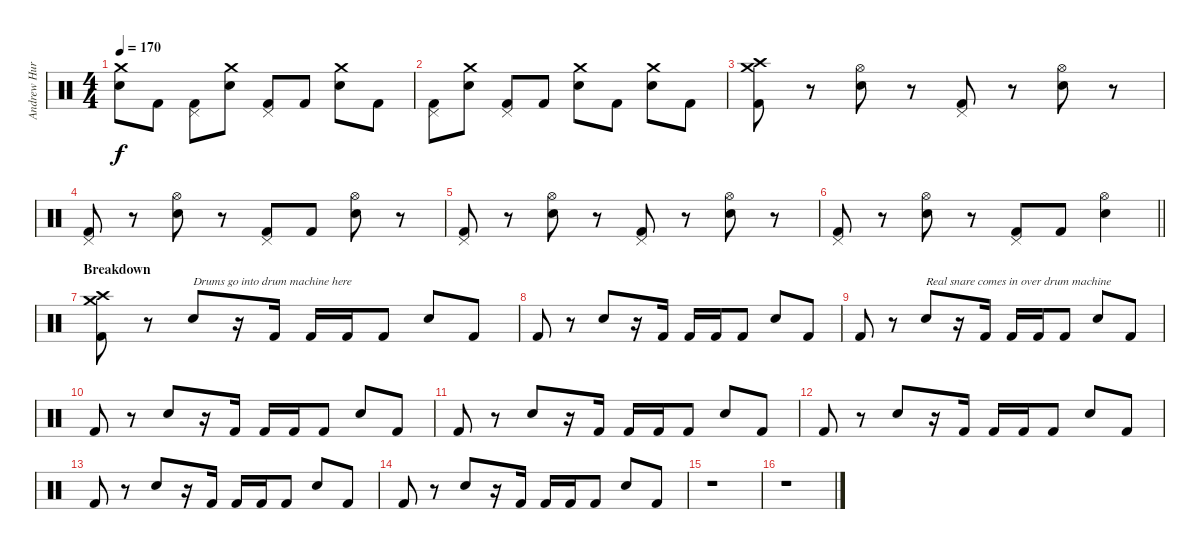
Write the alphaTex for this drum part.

\track ("Andrew Hurley (Drums)" "Andrew Hur") {instrument percussion}
\staff {score}
\articulation defaults
\ts (4 4)
\tempo 170
\clef neutral
\ks c
("Crash medium (hit)" "Electric Snare (hit)").8{dy f} "Kick (hit) 2".8 ("Pedal Hi-Hat (hit)" "Kick (hit) 2").8 ("Crash medium (hit)" "Electric Snare (hit)").8 ("Pedal Hi-Hat (hit)" "Kick (hit) 2").8 "Kick (hit) 2".8 ("Crash medium (hit)" "Electric Snare (hit)").8 "Kick (hit) 2".8 |
("Pedal Hi-Hat (hit)" "Kick (hit) 2").8 ("Crash medium (hit)" "Electric Snare (hit)").8 ("Pedal Hi-Hat (hit)" "Kick (hit) 2").8 "Kick (hit) 2".8 ("Crash medium (hit)" "Electric Snare (hit)").8 "Kick (hit) 2".8 ("Crash medium (hit)" "Electric Snare (hit)").8 "Kick (hit) 2".8 |
("Crash high (hit)" "Crash medium (hit)" "Kick (hit) 2").8 r.8 ("Hi-Hat (open)" "Electric Snare (hit)").8 r.8 ("Pedal Hi-Hat (hit)" "Kick (hit) 2").8 r.8 ("Hi-Hat (open)" "Electric Snare (hit)").8 r.8 |
("Pedal Hi-Hat (hit)" "Kick (hit) 2").8 r.8 ("Hi-Hat (open)" "Electric Snare (hit)").8 r.8 ("Pedal Hi-Hat (hit)" "Kick (hit) 2").8 "Kick (hit) 2".8 ("Hi-Hat (open)" "Electric Snare (hit)").8 r.8 |
("Pedal Hi-Hat (hit)" "Kick (hit) 2").8 r.8 ("Hi-Hat (open)" "Electric Snare (hit)").8 r.8 ("Pedal Hi-Hat (hit)" "Kick (hit) 2").8 r.8 ("Hi-Hat (open)" "Electric Snare (hit)").8 r.8 |
\barLineRight lightlight
("Pedal Hi-Hat (hit)" "Kick (hit) 2").8 r.8 ("Hi-Hat (open)" "Electric Snare (hit)").8 r.8 ("Pedal Hi-Hat (hit)" "Kick (hit) 2").8 "Kick (hit) 2".8 ("Hi-Hat (open)" "Electric Snare (hit)").4 |
\section ("" "Breakdown")
("Crash high (hit)" "Crash medium (hit)" "Kick (hit) 2").8 r.8 "Electric Snare (hit)".8{txt "Drums go into drum machine here"} r.16 "Kick (hit) 2".16 "Kick (hit) 2".16 "Kick (hit) 2".16 "Kick (hit) 2".8 "Electric Snare (hit)".8 "Kick (hit) 2".8 |
"Kick (hit) 2".8 r.8 "Electric Snare (hit)".8 r.16 "Kick (hit) 2".16 "Kick (hit) 2".16 "Kick (hit) 2".16 "Kick (hit) 2".8 "Electric Snare (hit)".8 "Kick (hit) 2".8 |
"Kick (hit) 2".8 r.8 "Electric Snare (hit)".8{txt "Real snare comes in over drum machine"} r.16 "Kick (hit) 2".16 "Kick (hit) 2".16 "Kick (hit) 2".16 "Kick (hit) 2".8 "Electric Snare (hit)".8 "Kick (hit) 2".8 |
"Kick (hit) 2".8 r.8 "Electric Snare (hit)".8 r.16 "Kick (hit) 2".16 "Kick (hit) 2".16 "Kick (hit) 2".16 "Kick (hit) 2".8 "Electric Snare (hit)".8 "Kick (hit) 2".8 |
"Kick (hit) 2".8 r.8 "Electric Snare (hit)".8 r.16 "Kick (hit) 2".16 "Kick (hit) 2".16 "Kick (hit) 2".16 "Kick (hit) 2".8 "Electric Snare (hit)".8 "Kick (hit) 2".8 |
"Kick (hit) 2".8 r.8 "Electric Snare (hit)".8 r.16 "Kick (hit) 2".16 "Kick (hit) 2".16 "Kick (hit) 2".16 "Kick (hit) 2".8 "Electric Snare (hit)".8 "Kick (hit) 2".8 |
"Kick (hit) 2".8 r.8 "Electric Snare (hit)".8 r.16 "Kick (hit) 2".16 "Kick (hit) 2".16 "Kick (hit) 2".16 "Kick (hit) 2".8 "Electric Snare (hit)".8 "Kick (hit) 2".8 |
"Kick (hit) 2".8 r.8 "Electric Snare (hit)".8 r.16 "Kick (hit) 2".16 "Kick (hit) 2".16 "Kick (hit) 2".16 "Kick (hit) 2".8 "Electric Snare (hit)".8 "Kick (hit) 2".8 |
r.1 |
r.1
